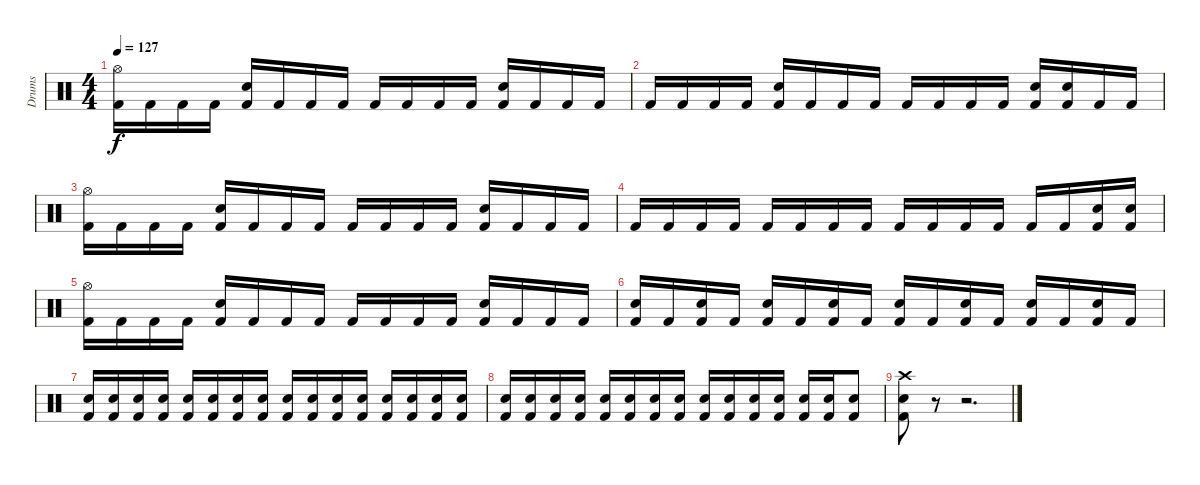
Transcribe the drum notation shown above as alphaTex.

\track ("Drums" "Drums") {instrument percussion}
\staff {score}
\articulation defaults
\ts (4 4)
\tempo 127
\clef neutral
\ks c
("Hi-Hat (open)" "Kick (hit) 2").16{dy f} "Kick (hit) 2".16 "Kick (hit) 2".16 "Kick (hit) 2".16 ("Snare (hit) 2" "Kick (hit) 2").16 "Kick (hit) 2".16 "Kick (hit) 2".16 "Kick (hit) 2".16 "Kick (hit) 2".16 "Kick (hit) 2".16 "Kick (hit) 2".16 "Kick (hit) 2".16 ("Snare (hit) 2" "Kick (hit) 2").16 "Kick (hit) 2".16 "Kick (hit) 2".16 "Kick (hit) 2".16 |
"Kick (hit) 2".16 "Kick (hit) 2".16 "Kick (hit) 2".16 "Kick (hit) 2".16 ("Snare (hit) 2" "Kick (hit) 2").16 "Kick (hit) 2".16 "Kick (hit) 2".16 "Kick (hit) 2".16 "Kick (hit) 2".16 "Kick (hit) 2".16 "Kick (hit) 2".16 "Kick (hit) 2".16 ("Snare (hit) 2" "Kick (hit) 2").16 ("Snare (hit) 2" "Kick (hit) 2").16 "Kick (hit) 2".16 "Kick (hit) 2".16 |
("Hi-Hat (open)" "Kick (hit) 2").16 "Kick (hit) 2".16 "Kick (hit) 2".16 "Kick (hit) 2".16 ("Snare (hit) 2" "Kick (hit) 2").16 "Kick (hit) 2".16 "Kick (hit) 2".16 "Kick (hit) 2".16 "Kick (hit) 2".16 "Kick (hit) 2".16 "Kick (hit) 2".16 "Kick (hit) 2".16 ("Snare (hit) 2" "Kick (hit) 2").16 "Kick (hit) 2".16 "Kick (hit) 2".16 "Kick (hit) 2".16 |
"Kick (hit) 2".16 "Kick (hit) 2".16 "Kick (hit) 2".16 "Kick (hit) 2".16 "Kick (hit) 2".16 "Kick (hit) 2".16 "Kick (hit) 2".16 "Kick (hit) 2".16 "Kick (hit) 2".16 "Kick (hit) 2".16 "Kick (hit) 2".16 "Kick (hit) 2".16 "Kick (hit) 2".16 "Kick (hit) 2".16 ("Snare (hit) 2" "Kick (hit) 2").16 ("Snare (hit) 2" "Kick (hit) 2").16 |
("Hi-Hat (open)" "Kick (hit) 2").16 "Kick (hit) 2".16 "Kick (hit) 2".16 "Kick (hit) 2".16 ("Snare (hit) 2" "Kick (hit) 2").16 "Kick (hit) 2".16 "Kick (hit) 2".16 "Kick (hit) 2".16 "Kick (hit) 2".16 "Kick (hit) 2".16 "Kick (hit) 2".16 "Kick (hit) 2".16 ("Snare (hit) 2" "Kick (hit) 2").16 "Kick (hit) 2".16 "Kick (hit) 2".16 "Kick (hit) 2".16 |
("Snare (hit) 2" "Kick (hit) 2").16 "Kick (hit) 2".16 ("Snare (hit) 2" "Kick (hit) 2").16 "Kick (hit) 2".16 ("Snare (hit) 2" "Kick (hit) 2").16 "Kick (hit) 2".16 ("Snare (hit) 2" "Kick (hit) 2").16 "Kick (hit) 2".16 ("Snare (hit) 2" "Kick (hit) 2").16 "Kick (hit) 2".16 ("Snare (hit) 2" "Kick (hit) 2").16 "Kick (hit) 2".16 ("Snare (hit) 2" "Kick (hit) 2").16 "Kick (hit) 2".16 ("Snare (hit) 2" "Kick (hit) 2").16 "Kick (hit) 2".16 |
("Snare (hit) 2" "Kick (hit) 2").16 ("Snare (hit) 2" "Kick (hit) 2").16 ("Snare (hit) 2" "Kick (hit) 2").16 ("Snare (hit) 2" "Kick (hit) 2").16 ("Snare (hit) 2" "Kick (hit) 2").16 ("Snare (hit) 2" "Kick (hit) 2").16 ("Snare (hit) 2" "Kick (hit) 2").16 ("Snare (hit) 2" "Kick (hit) 2").16 ("Snare (hit) 2" "Kick (hit) 2").16 ("Snare (hit) 2" "Kick (hit) 2").16 ("Snare (hit) 2" "Kick (hit) 2").16 ("Snare (hit) 2" "Kick (hit) 2").16 ("Snare (hit) 2" "Kick (hit) 2").16 ("Snare (hit) 2" "Kick (hit) 2").16 ("Snare (hit) 2" "Kick (hit) 2").16 ("Snare (hit) 2" "Kick (hit) 2").16 |
("Snare (hit) 2" "Kick (hit) 2").16 ("Snare (hit) 2" "Kick (hit) 2").16 ("Snare (hit) 2" "Kick (hit) 2").16 ("Snare (hit) 2" "Kick (hit) 2").16 ("Snare (hit) 2" "Kick (hit) 2").16 ("Snare (hit) 2" "Kick (hit) 2").16 ("Snare (hit) 2" "Kick (hit) 2").16 ("Snare (hit) 2" "Kick (hit) 2").16 ("Snare (hit) 2" "Kick (hit) 2").16 ("Snare (hit) 2" "Kick (hit) 2").16 ("Snare (hit) 2" "Kick (hit) 2").16 ("Snare (hit) 2" "Kick (hit) 2").16 ("Snare (hit) 2" "Kick (hit) 2").16 ("Snare (hit) 2" "Kick (hit) 2").16 ("Snare (hit) 2" "Kick (hit) 2").8 |
("Crash high (hit)" "Snare (hit) 2" "Kick (hit) 2").8 r.8 r.2{d}
